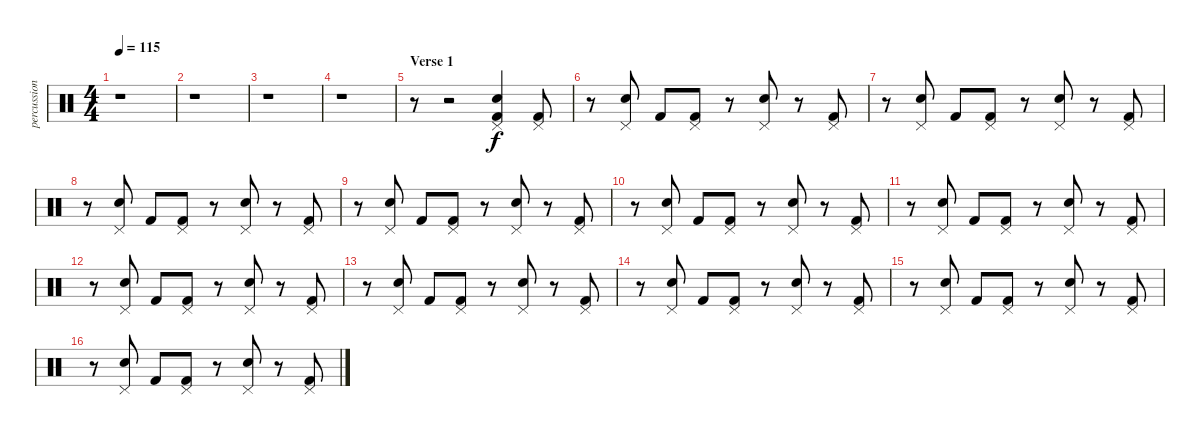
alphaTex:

\track ("percussion - vom" "percussion") {instrument percussion}
\staff {score}
\articulation defaults
\ts (4 4)
\tempo 115
\clef neutral
\ks c
r.1{dy f} |
r.1 |
r.1 |
r.1 |
\section ("" "Verse 1")
r.8 r.2 ("Pedal Hi-Hat (hit)" "Snare (hit) 2" "Kick (hit) 2").4 ("Pedal Hi-Hat (hit)" "Kick (hit) 2").8 |
r.8 ("Pedal Hi-Hat (hit)" "Snare (hit) 2").8 "Kick (hit) 2".8 ("Pedal Hi-Hat (hit)" "Kick (hit) 2").8 r.8 ("Pedal Hi-Hat (hit)" "Snare (hit) 2").8 r.8 ("Pedal Hi-Hat (hit)" "Kick (hit) 2").8 |
r.8 ("Pedal Hi-Hat (hit)" "Snare (hit) 2").8 "Kick (hit) 2".8 ("Pedal Hi-Hat (hit)" "Kick (hit) 2").8 r.8 ("Pedal Hi-Hat (hit)" "Snare (hit) 2").8 r.8 ("Pedal Hi-Hat (hit)" "Kick (hit) 2").8 |
r.8 ("Pedal Hi-Hat (hit)" "Snare (hit) 2").8 "Kick (hit) 2".8 ("Pedal Hi-Hat (hit)" "Kick (hit) 2").8 r.8 ("Pedal Hi-Hat (hit)" "Snare (hit) 2").8 r.8 ("Pedal Hi-Hat (hit)" "Kick (hit) 2").8 |
r.8 ("Pedal Hi-Hat (hit)" "Snare (hit) 2").8 "Kick (hit) 2".8 ("Pedal Hi-Hat (hit)" "Kick (hit) 2").8 r.8 ("Pedal Hi-Hat (hit)" "Snare (hit) 2").8 r.8 ("Pedal Hi-Hat (hit)" "Kick (hit) 2").8 |
r.8 ("Pedal Hi-Hat (hit)" "Snare (hit) 2").8 "Kick (hit) 2".8 ("Pedal Hi-Hat (hit)" "Kick (hit) 2").8 r.8 ("Pedal Hi-Hat (hit)" "Snare (hit) 2").8 r.8 ("Pedal Hi-Hat (hit)" "Kick (hit) 2").8 |
r.8 ("Pedal Hi-Hat (hit)" "Snare (hit) 2").8 "Kick (hit) 2".8 ("Pedal Hi-Hat (hit)" "Kick (hit) 2").8 r.8 ("Pedal Hi-Hat (hit)" "Snare (hit) 2").8 r.8 ("Pedal Hi-Hat (hit)" "Kick (hit) 2").8 |
r.8 ("Pedal Hi-Hat (hit)" "Snare (hit) 2").8 "Kick (hit) 2".8 ("Pedal Hi-Hat (hit)" "Kick (hit) 2").8 r.8 ("Pedal Hi-Hat (hit)" "Snare (hit) 2").8 r.8 ("Pedal Hi-Hat (hit)" "Kick (hit) 2").8 |
r.8 ("Pedal Hi-Hat (hit)" "Snare (hit) 2").8 "Kick (hit) 2".8 ("Pedal Hi-Hat (hit)" "Kick (hit) 2").8 r.8 ("Pedal Hi-Hat (hit)" "Snare (hit) 2").8 r.8 ("Pedal Hi-Hat (hit)" "Kick (hit) 2").8 |
r.8 ("Pedal Hi-Hat (hit)" "Snare (hit) 2").8 "Kick (hit) 2".8 ("Pedal Hi-Hat (hit)" "Kick (hit) 2").8 r.8 ("Pedal Hi-Hat (hit)" "Snare (hit) 2").8 r.8 ("Pedal Hi-Hat (hit)" "Kick (hit) 2").8 |
r.8 ("Pedal Hi-Hat (hit)" "Snare (hit) 2").8 "Kick (hit) 2".8 ("Pedal Hi-Hat (hit)" "Kick (hit) 2").8 r.8 ("Pedal Hi-Hat (hit)" "Snare (hit) 2").8 r.8 ("Pedal Hi-Hat (hit)" "Kick (hit) 2").8 |
r.8 ("Pedal Hi-Hat (hit)" "Snare (hit) 2").8 "Kick (hit) 2".8 ("Pedal Hi-Hat (hit)" "Kick (hit) 2").8 r.8 ("Pedal Hi-Hat (hit)" "Snare (hit) 2").8 r.8 ("Pedal Hi-Hat (hit)" "Kick (hit) 2").8
